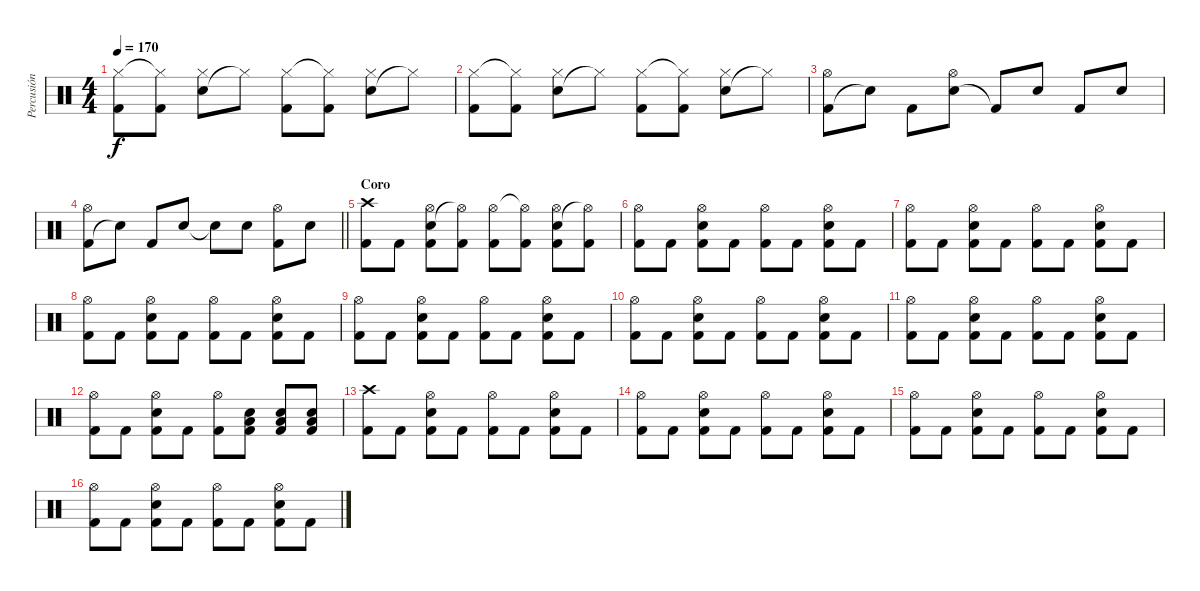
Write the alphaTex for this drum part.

\track ("Percusión" "Percusión") {instrument percussion}
\staff {score}
\articulation defaults
\ts (4 4)
\tempo 170
\clef neutral
\ks c
("Kick (hit) 2" "Hi-Hat (closed)").8{dy f} ("Kick (hit) 2" "Hi-Hat (closed)"{t}).8 ("Snare (hit) 2" "Hi-Hat (closed)").8 "Hi-Hat (closed)"{t}.8 ("Kick (hit) 2" "Hi-Hat (closed)").8 ("Kick (hit) 2" "Hi-Hat (closed)"{t}).8 ("Snare (hit) 2" "Hi-Hat (closed)").8 "Hi-Hat (closed)"{t}.8 |
("Kick (hit) 2" "Hi-Hat (closed)").8 ("Kick (hit) 2" "Hi-Hat (closed)"{t}).8 ("Snare (hit) 2" "Hi-Hat (closed)").8 "Hi-Hat (closed)"{t}.8 ("Kick (hit) 2" "Hi-Hat (closed)").8 ("Kick (hit) 2" "Hi-Hat (closed)"{t}).8 ("Snare (hit) 2" "Hi-Hat (closed)").8 "Hi-Hat (closed)"{t}.8 |
("Kick (hit) 2" "Hi-Hat (open)").8 "Snare (hit)"{t}.8 "Kick (hit) 2".8 ("Snare (hit) 2" "Hi-Hat (open)").8 "Kick (hit) 2"{t}.8 "Snare (hit) 2".8 "Kick (hit) 2".8 "Snare (hit) 2".8 |
\barLineRight lightlight
("Kick (hit) 2" "Hi-Hat (open)").8 "Snare (hit)"{t}.8 "Kick (hit) 2".8 "Snare (hit) 2".8 "Snare (hit)"{t}.8 "Snare (hit) 2".8 ("Kick (hit) 2" "Hi-Hat (open)").8 "Snare (hit) 2".8 |
\section ("" "Coro")
("Kick (hit) 2" "Crash high (hit)").8 "Kick (hit) 2".8 ("Kick (hit) 2" "Snare (hit) 2" "Hi-Hat (open)").8 ("Kick (hit) 2" "Hi-Hat (open)"{t}).8 ("Kick (hit) 2" "Hi-Hat (open)").8 ("Kick (hit) 2" "Hi-Hat (open)"{t}).8 ("Kick (hit) 2" "Snare (hit) 2" "Hi-Hat (open)").8 ("Kick (hit) 2" "Hi-Hat (open)"{t}).8 |
("Kick (hit) 2" "Hi-Hat (open)").8 "Kick (hit) 2".8 ("Kick (hit) 2" "Snare (hit) 2" "Hi-Hat (open)").8 "Kick (hit) 2".8 ("Kick (hit) 2" "Hi-Hat (open)").8 "Kick (hit) 2".8 ("Kick (hit) 2" "Snare (hit) 2" "Hi-Hat (open)").8 "Kick (hit) 2".8 |
("Kick (hit) 2" "Hi-Hat (open)").8 "Kick (hit) 2".8 ("Kick (hit) 2" "Snare (hit) 2" "Hi-Hat (open)").8 "Kick (hit) 2".8 ("Kick (hit) 2" "Hi-Hat (open)").8 "Kick (hit) 2".8 ("Kick (hit) 2" "Snare (hit) 2" "Hi-Hat (open)").8 "Kick (hit) 2".8 |
("Kick (hit) 2" "Hi-Hat (open)").8 "Kick (hit) 2".8 ("Kick (hit) 2" "Snare (hit) 2" "Hi-Hat (open)").8 "Kick (hit) 2".8 ("Kick (hit) 2" "Hi-Hat (open)").8 "Kick (hit) 2".8 ("Kick (hit) 2" "Snare (hit) 2" "Hi-Hat (open)").8 "Kick (hit) 2".8 |
("Kick (hit) 2" "Hi-Hat (open)").8 "Kick (hit) 2".8 ("Kick (hit) 2" "Snare (hit) 2" "Hi-Hat (open)").8 "Kick (hit) 2".8 ("Kick (hit) 2" "Hi-Hat (open)").8 "Kick (hit) 2".8 ("Kick (hit) 2" "Snare (hit) 2" "Hi-Hat (open)").8 "Kick (hit) 2".8 |
("Kick (hit) 2" "Hi-Hat (open)").8 "Kick (hit) 2".8 ("Kick (hit) 2" "Snare (hit) 2" "Hi-Hat (open)").8 "Kick (hit) 2".8 ("Kick (hit) 2" "Hi-Hat (open)").8 "Kick (hit) 2".8 ("Kick (hit) 2" "Snare (hit) 2" "Hi-Hat (open)").8 "Kick (hit) 2".8 |
("Kick (hit) 2" "Hi-Hat (open)").8 "Kick (hit) 2".8 ("Kick (hit) 2" "Snare (hit) 2" "Hi-Hat (open)").8 "Kick (hit) 2".8 ("Kick (hit) 2" "Hi-Hat (open)").8 "Kick (hit) 2".8 ("Kick (hit) 2" "Snare (hit) 2" "Hi-Hat (open)").8 "Kick (hit) 2".8 |
("Kick (hit) 2" "Hi-Hat (open)").8 "Kick (hit) 2".8 ("Kick (hit) 2" "Snare (hit) 2" "Hi-Hat (open)").8 "Kick (hit) 2".8 ("Kick (hit) 2" "Hi-Hat (open)").8 ("Kick (hit) 2" "Snare (hit) 2" "Low Floor Tom (hit)").8 ("Kick (hit) 2" "Snare (hit) 2" "Low Floor Tom (hit)").8 ("Kick (hit) 2" "Snare (hit) 2" "Low Floor Tom (hit)").8 |
("Kick (hit) 2" "Crash high (hit)").8 "Kick (hit) 2".8 ("Kick (hit) 2" "Snare (hit) 2" "Hi-Hat (open)").8 "Kick (hit) 2".8 ("Kick (hit) 2" "Hi-Hat (open)").8 "Kick (hit) 2".8 ("Kick (hit) 2" "Snare (hit) 2" "Hi-Hat (open)").8 "Kick (hit) 2".8 |
("Kick (hit) 2" "Hi-Hat (open)").8 "Kick (hit) 2".8 ("Kick (hit) 2" "Snare (hit) 2" "Hi-Hat (open)").8 "Kick (hit) 2".8 ("Kick (hit) 2" "Hi-Hat (open)").8 "Kick (hit) 2".8 ("Kick (hit) 2" "Snare (hit) 2" "Hi-Hat (open)").8 "Kick (hit) 2".8 |
("Kick (hit) 2" "Hi-Hat (open)").8 "Kick (hit) 2".8 ("Kick (hit) 2" "Snare (hit) 2" "Hi-Hat (open)").8 "Kick (hit) 2".8 ("Kick (hit) 2" "Hi-Hat (open)").8 "Kick (hit) 2".8 ("Kick (hit) 2" "Snare (hit) 2" "Hi-Hat (open)").8 "Kick (hit) 2".8 |
("Kick (hit) 2" "Hi-Hat (open)").8 "Kick (hit) 2".8 ("Kick (hit) 2" "Snare (hit) 2" "Hi-Hat (open)").8 "Kick (hit) 2".8 ("Kick (hit) 2" "Hi-Hat (open)").8 "Kick (hit) 2".8 ("Kick (hit) 2" "Snare (hit) 2" "Hi-Hat (open)").8 "Kick (hit) 2".8
